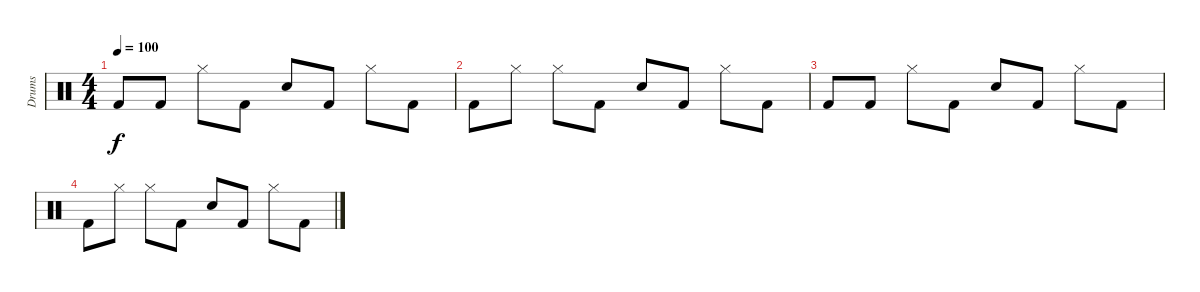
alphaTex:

\track ("Drums" "Drums") {instrument percussion}
\staff {score}
\articulation defaults
\ts (4 4)
\tempo 100
\clef neutral
\ks c "Kick (hit) 2".8{dy f} "Kick (hit) 2".8 "Hi-Hat (closed)".8 "Kick (hit) 2".8 "Snare (hit) 2".8 "Kick (hit) 2".8 "Hi-Hat (closed)".8 "Kick (hit) 2".8
|
"Kick (hit) 2".8 "Hi-Hat (closed)".8 "Hi-Hat (closed)".8 "Kick (hit) 2".8 "Snare (hit) 2".8 "Kick (hit) 2".8 "Hi-Hat (closed)".8 "Kick (hit) 2".8 |
"Kick (hit) 2".8 "Kick (hit) 2".8 "Hi-Hat (closed)".8 "Kick (hit) 2".8 "Snare (hit) 2".8 "Kick (hit) 2".8 "Hi-Hat (closed)".8 "Kick (hit) 2".8 |
"Kick (hit) 2".8 "Hi-Hat (closed)".8 "Hi-Hat (closed)".8 "Kick (hit) 2".8 "Snare (hit) 2".8 "Kick (hit) 2".8 "Hi-Hat (closed)".8 "Kick (hit) 2".8
